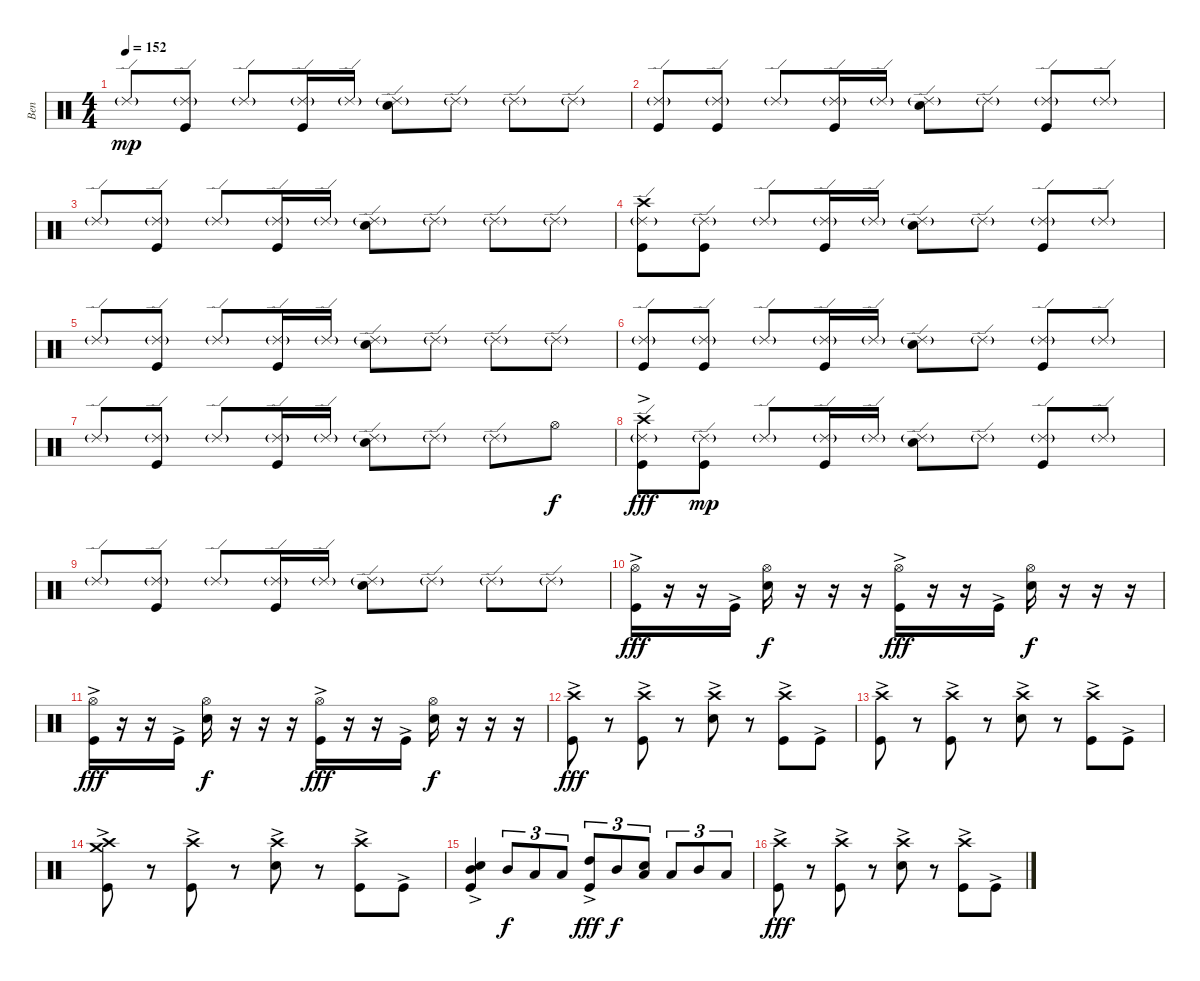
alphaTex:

\track ("Ben" "Ben") {instrument percussion}
\staff {score}
\articulation defaults
\ts (4 4)
\tempo 152
\clef neutral
\ks c "Ride (edge) 2"{g}.8{dy mp}
("Ride (edge) 2"{g} "Kick (hit)").8 "Ride (edge) 2"{g}.8 ("Ride (edge) 2"{g} "Kick (hit)").16 "Ride (edge) 2"{g}.16 ("Ride (edge) 2"{g} "Electric Snare (hit)").8 "Ride (edge) 2"{g}.8 "Ride (edge) 2"{g}.8 "Ride (edge) 2"{g}.8 |
("Ride (edge) 2"{g} "Kick (hit)").8 ("Ride (edge) 2"{g} "Kick (hit)").8 "Ride (edge) 2"{g}.8 ("Ride (edge) 2"{g} "Kick (hit)").16 "Ride (edge) 2"{g}.16 ("Ride (edge) 2"{g} "Electric Snare (hit)").8 "Ride (edge) 2"{g}.8 ("Ride (edge) 2"{g} "Kick (hit)").8 "Ride (edge) 2"{g}.8 |
"Ride (edge) 2"{g}.8 ("Ride (edge) 2"{g} "Kick (hit)").8 "Ride (edge) 2"{g}.8 ("Ride (edge) 2"{g} "Kick (hit)").16 "Ride (edge) 2"{g}.16 ("Ride (edge) 2"{g} "Electric Snare (hit)").8 "Ride (edge) 2"{g}.8 "Ride (edge) 2"{g}.8 "Ride (edge) 2"{g}.8 |
("Ride (edge) 2"{g} "Crash high (hit)" "Kick (hit)").8 ("Ride (edge) 2"{g} "Kick (hit)").8 "Ride (edge) 2"{g}.8 ("Ride (edge) 2"{g} "Kick (hit)").16 "Ride (edge) 2"{g}.16 ("Ride (edge) 2"{g} "Electric Snare (hit)").8 "Ride (edge) 2"{g}.8 ("Ride (edge) 2"{g} "Kick (hit)").8 "Ride (edge) 2"{g}.8 |
"Ride (edge) 2"{g}.8 ("Ride (edge) 2"{g} "Kick (hit)").8 "Ride (edge) 2"{g}.8 ("Ride (edge) 2"{g} "Kick (hit)").16 "Ride (edge) 2"{g}.16 ("Ride (edge) 2"{g} "Electric Snare (hit)").8 "Ride (edge) 2"{g}.8 "Ride (edge) 2"{g}.8 "Ride (edge) 2"{g}.8 |
("Ride (edge) 2"{g} "Kick (hit)").8 ("Ride (edge) 2"{g} "Kick (hit)").8 "Ride (edge) 2"{g}.8 ("Ride (edge) 2"{g} "Kick (hit)").16 "Ride (edge) 2"{g}.16 ("Ride (edge) 2"{g} "Electric Snare (hit)").8 "Ride (edge) 2"{g}.8 ("Ride (edge) 2"{g} "Kick (hit)").8 "Ride (edge) 2"{g}.8 |
"Ride (edge) 2"{g}.8 ("Ride (edge) 2"{g} "Kick (hit)").8 "Ride (edge) 2"{g}.8 ("Ride (edge) 2"{g} "Kick (hit)").16 "Ride (edge) 2"{g}.16 ("Ride (edge) 2"{g} "Electric Snare (hit)").8 "Ride (edge) 2"{g}.8 "Ride (edge) 2"{g}.8 "Hi-Hat (open)".8{dy f} |
("Ride (edge) 2"{g} "Crash high (hit)"{ac} "Kick (hit)").8{dy fff} ("Ride (edge) 2"{g} "Kick (hit)").8{dy mp} "Ride (edge) 2"{g}.8 ("Ride (edge) 2"{g} "Kick (hit)").16 "Ride (edge) 2"{g}.16 ("Ride (edge) 2"{g} "Electric Snare (hit)").8 "Ride (edge) 2"{g}.8 ("Ride (edge) 2"{g} "Kick (hit)").8 "Ride (edge) 2"{g}.8 |
"Ride (edge) 2"{g}.8 ("Ride (edge) 2"{g} "Kick (hit)").8 "Ride (edge) 2"{g}.8 ("Ride (edge) 2"{g} "Kick (hit)").16 "Ride (edge) 2"{g}.16 ("Ride (edge) 2"{g} "Electric Snare (hit)").8 "Ride (edge) 2"{g}.8 "Ride (edge) 2"{g}.8 "Ride (edge) 2"{g}.8 |
("Hi-Hat (open)" "Kick (hit)"{ac}).16{dy fff} r.16 r.16 "Kick (hit)"{ac}.16 ("Hi-Hat (open)" "Electric Snare (hit)").16{dy f} r.16 r.16 r.16 ("Hi-Hat (open)" "Kick (hit)"{ac}).16{dy fff} r.16 r.16 "Kick (hit)"{ac}.16 ("Hi-Hat (open)" "Electric Snare (hit)").16{dy f} r.16 r.16 r.16 |
("Hi-Hat (open)" "Kick (hit)"{ac}).16{dy fff} r.16 r.16 "Kick (hit)"{ac}.16 ("Hi-Hat (open)" "Electric Snare (hit)").16{dy f} r.16 r.16 r.16 ("Hi-Hat (open)" "Kick (hit)"{ac}).16{dy fff} r.16 r.16 "Kick (hit)"{ac}.16 ("Hi-Hat (open)" "Electric Snare (hit)").16{dy f} r.16 r.16 r.16 |
("Crash high (hit)" "Kick (hit)"{ac}).8{dy fff} r.8 ("Crash high (hit)" "Kick (hit)"{ac}).8 r.8 ("Crash high (hit)" "Electric Snare (hit)"{ac}).8 r.8 ("Crash high (hit)" "Kick (hit)"{ac}).8 "Kick (hit)"{ac}.8 |
("Crash high (hit)" "Kick (hit)"{ac}).8 r.8 ("Crash high (hit)" "Kick (hit)"{ac}).8 r.8 ("Crash high (hit)" "Electric Snare (hit)"{ac}).8 r.8 ("Crash high (hit)" "Kick (hit)"{ac}).8 "Kick (hit)"{ac}.8 |
("Crash high (hit)" "Crash medium (hit)"{ac} "Kick (hit)"{ac}).8 r.8 ("Crash high (hit)" "Kick (hit)"{ac}).8 r.8 ("Crash high (hit)" "Electric Snare (hit)"{ac}).8 r.8 ("Crash high (hit)" "Kick (hit)"{ac}).8 "Kick (hit)"{ac}.8 |
("Mid Tom (hit)" "Electric Snare (hit)" "Kick (hit)"{ac}).4 "Mid Tom (hit)".8{tu (3 2) dy f} "Low Tom (hit)".8{tu (3 2)} "Low Floor Tom (hit)".8{tu (3 2)} ("High Tom (hit)" "Kick (hit)"{ac}).8{tu (3 2) dy fff} "Mid Tom (hit)".8{tu (3 2) dy f} ("Low Tom (hit)" "Electric Snare (hit)").8{tu (3 2)} "Low Floor Tom (hit)".8{tu (3 2)} "Mid Tom (hit)".8{tu (3 2)} "Low Tom (hit)".8{tu (3 2)} |
("Crash high (hit)" "Kick (hit)"{ac}).8{dy fff} r.8 ("Crash high (hit)" "Kick (hit)"{ac}).8 r.8 ("Crash high (hit)" "Electric Snare (hit)"{ac}).8 r.8 ("Crash high (hit)" "Kick (hit)"{ac}).8 "Kick (hit)"{ac}.8
